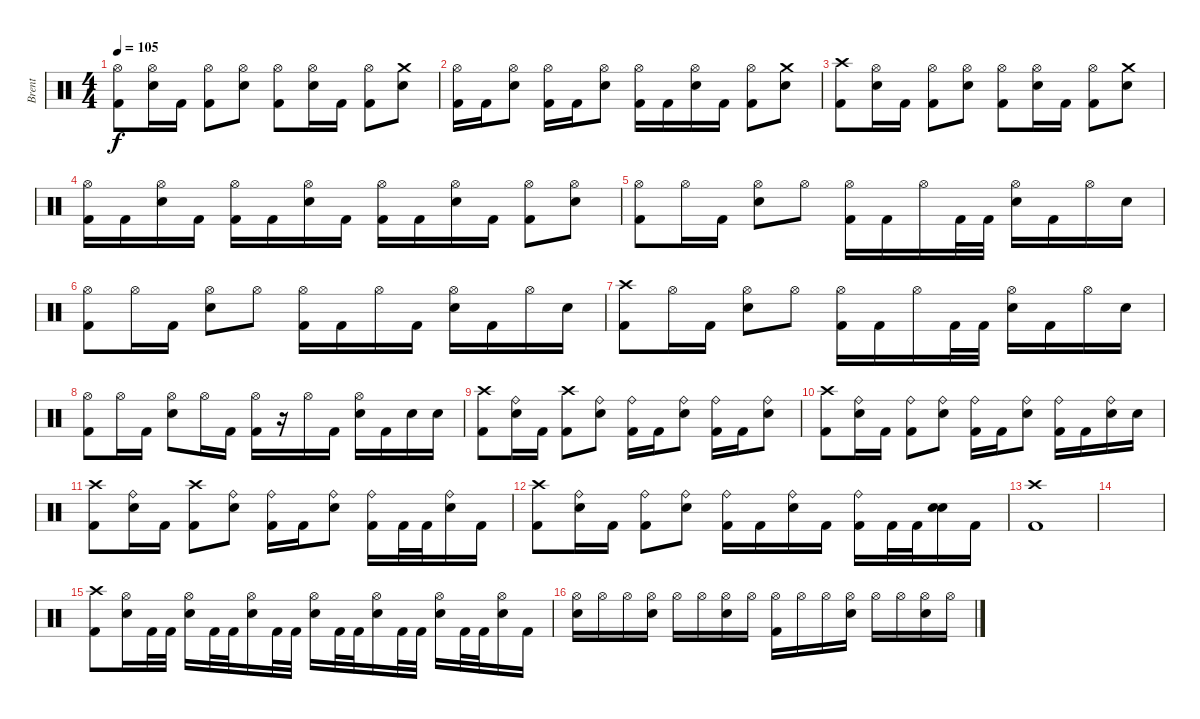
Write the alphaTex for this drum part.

\track ("Brent" "Brent") {instrument percussion}
\staff {score}
\articulation defaults
\ts (4 4)
\tempo 105
\clef neutral
\ks c
("Hi-Hat (open)" "Kick (hit) 2").8{dy f} ("Hi-Hat (open)" "Snare (hit) 2").16 "Kick (hit) 2".16 ("Hi-Hat (open)" "Kick (hit) 2").8 ("Hi-Hat (open)" "Snare (hit) 2").8 ("Hi-Hat (open)" "Kick (hit) 2").8 ("Hi-Hat (open)" "Snare (hit) 2").16 "Kick (hit) 2".16 ("Hi-Hat (open)" "Kick (hit) 2").8 ("Crash medium (hit)" "Snare (hit) 2").8 |
("Hi-Hat (open)" "Kick (hit) 2").16 "Kick (hit) 2".16 ("Hi-Hat (open)" "Snare (hit) 2").8 ("Hi-Hat (open)" "Kick (hit) 2").16 "Kick (hit) 2".16 ("Hi-Hat (open)" "Snare (hit) 2").8 ("Hi-Hat (open)" "Kick (hit) 2").16 "Kick (hit) 2".16 ("Hi-Hat (open)" "Snare (hit) 2").16 "Kick (hit) 2".16 ("Hi-Hat (open)" "Kick (hit) 2").8 ("Crash medium (hit)" "Snare (hit) 2").8 |
("Crash high (hit)" "Kick (hit) 2").8 ("Hi-Hat (open)" "Snare (hit) 2").16 "Kick (hit) 2".16 ("Hi-Hat (open)" "Kick (hit) 2").8 ("Hi-Hat (open)" "Snare (hit) 2").8 ("Hi-Hat (open)" "Kick (hit) 2").8 ("Hi-Hat (open)" "Snare (hit) 2").16 "Kick (hit) 2".16 ("Hi-Hat (open)" "Kick (hit) 2").8 ("Crash medium (hit)" "Snare (hit) 2").8 |
("Hi-Hat (open)" "Kick (hit) 2").16 "Kick (hit) 2".16 ("Hi-Hat (open)" "Snare (hit) 2").16 "Kick (hit) 2".16 ("Hi-Hat (open)" "Kick (hit) 2").16 "Kick (hit) 2".16 ("Hi-Hat (open)" "Snare (hit) 2").16 "Kick (hit) 2".16 ("Hi-Hat (open)" "Kick (hit) 2").16 "Kick (hit) 2".16 ("Hi-Hat (open)" "Snare (hit) 2").16 "Kick (hit) 2".16 ("Hi-Hat (open)" "Kick (hit) 2").8 ("Hi-Hat (open)" "Snare (hit) 2").8 |
("Hi-Hat (open)" "Kick (hit) 2").8 "Hi-Hat (open)".16 "Kick (hit) 2".16 ("Hi-Hat (open)" "Snare (hit) 2").8 "Hi-Hat (open)".8 ("Hi-Hat (open)" "Kick (hit) 2").16 "Kick (hit) 2".16 "Hi-Hat (open)".16 "Kick (hit) 2".32 "Kick (hit) 2".32 ("Hi-Hat (open)" "Snare (hit) 2").16 "Kick (hit) 2".16 "Hi-Hat (open)".16 "Snare (hit) 2".16 |
("Hi-Hat (open)" "Kick (hit) 2").8 "Hi-Hat (open)".16 "Kick (hit) 2".16 ("Hi-Hat (open)" "Snare (hit) 2").8 "Hi-Hat (open)".8 ("Hi-Hat (open)" "Kick (hit) 2").16 "Kick (hit) 2".16 "Hi-Hat (open)".16 "Kick (hit) 2".16 ("Hi-Hat (open)" "Snare (hit) 2").16 "Kick (hit) 2".16 "Hi-Hat (open)".16 "Snare (hit) 2".16 |
("Crash high (hit)" "Kick (hit) 2").8 "Hi-Hat (open)".16 "Kick (hit) 2".16 ("Hi-Hat (open)" "Snare (hit) 2").8 "Hi-Hat (open)".8 ("Hi-Hat (open)" "Kick (hit) 2").16 "Kick (hit) 2".16 "Hi-Hat (open)".16 "Kick (hit) 2".32 "Kick (hit) 2".32 ("Hi-Hat (open)" "Snare (hit) 2").16 "Kick (hit) 2".16 "Hi-Hat (open)".16 "Snare (hit) 2".16 |
("Hi-Hat (open)" "Kick (hit) 2").8 "Hi-Hat (open)".16 "Kick (hit) 2".16 ("Hi-Hat (open)" "Snare (hit) 2").8 "Hi-Hat (open)".16 "Kick (hit) 2".16 ("Hi-Hat (open)" "Kick (hit) 2").16 r.16 "Hi-Hat (open)".16 "Kick (hit) 2".16 ("Hi-Hat (open)" "Snare (hit) 2").16 "Kick (hit) 2".16 "Snare (hit) 2".16 "Snare (hit) 2".16 |
("Crash high (hit)" "Kick (hit) 2").8 ("Ride (bell)" "Snare (hit) 2").16 "Kick (hit) 2".16 ("Crash high (hit)" "Kick (hit) 2").8 ("Ride (bell)" "Snare (hit) 2").8 ("Ride (bell)" "Kick (hit) 2").16 "Kick (hit) 2".16 ("Ride (bell)" "Snare (hit) 2").8 ("Ride (bell)" "Kick (hit) 2").16 "Kick (hit) 2".16 ("Ride (bell)" "Snare (hit) 2").8 |
("Crash high (hit)" "Kick (hit) 2").8 ("Ride (bell)" "Snare (hit) 2").16 "Kick (hit) 2".16 ("Ride (bell)" "Kick (hit) 2").8 ("Ride (bell)" "Snare (hit) 2").8 ("Ride (bell)" "Kick (hit) 2").16 "Kick (hit) 2".16 ("Ride (bell)" "Snare (hit) 2").8 ("Ride (bell)" "Kick (hit) 2").16 "Kick (hit) 2".16 ("Ride (bell)" "Snare (hit) 2").16 "Snare (hit) 2".16 |
("Crash high (hit)" "Kick (hit) 2").8 ("Ride (bell)" "Snare (hit) 2").16 "Kick (hit) 2".16 ("Crash high (hit)" "Kick (hit) 2").8 ("Ride (bell)" "Snare (hit) 2").8 ("Ride (bell)" "Kick (hit) 2").16 "Kick (hit) 2".16 ("Ride (bell)" "Snare (hit) 2").8 ("Ride (bell)" "Kick (hit) 2").16 "Kick (hit) 2".32 "Kick (hit) 2".32 ("Ride (bell)" "Snare (hit) 2").16 "Kick (hit) 2".16 |
("Crash high (hit)" "Kick (hit) 2").8 ("Ride (bell)" "Snare (hit) 2").16 "Kick (hit) 2".16 ("Ride (bell)" "Kick (hit) 2").8 ("Ride (bell)" "Snare (hit) 2").8 ("Ride (bell)" "Kick (hit) 2").16 "Kick (hit) 2".16 ("Ride (bell)" "Snare (hit) 2").16 "Kick (hit) 2".16 ("Ride (bell)" "Kick (hit) 2").16 "Kick (hit) 2".32 "Kick (hit) 2".32 ("Snare (hit) 2" "Snare (hit) 2").16 "Kick (hit) 2".16 |
("Crash high (hit)" "Kick (hit) 2").1 |
|
("Crash high (hit)" "Kick (hit) 2").8 ("Hi-Hat (open)" "Snare (hit) 2").16 "Kick (hit) 2".32 "Kick (hit) 2".32 ("Hi-Hat (open)" "Snare (hit) 2").16 "Kick (hit) 2".32 "Kick (hit) 2".32 ("Hi-Hat (open)" "Snare (hit) 2").16 "Kick (hit) 2".32 "Kick (hit) 2".32 ("Hi-Hat (open)" "Snare (hit) 2").16 "Kick (hit) 2".32 "Kick (hit) 2".32 ("Hi-Hat (open)" "Snare (hit) 2").16 "Kick (hit) 2".32 "Kick (hit) 2".32 ("Hi-Hat (open)" "Snare (hit) 2").16 "Kick (hit) 2".32 "Kick (hit) 2".32 ("Hi-Hat (open)" "Snare (hit) 2").16 "Kick (hit) 2".16 |
("Hi-Hat (open)" "Snare (hit) 2").16 "Hi-Hat (open)".16 "Hi-Hat (open)".16 ("Hi-Hat (open)" "Snare (hit) 2").16 "Hi-Hat (open)".16 "Hi-Hat (open)".16 ("Hi-Hat (open)" "Snare (hit) 2").16 "Hi-Hat (open)".16 ("Hi-Hat (open)" "Kick (hit) 2").16 "Hi-Hat (open)".16 "Hi-Hat (open)".16 ("Hi-Hat (open)" "Snare (hit) 2").16 "Hi-Hat (open)".16 "Hi-Hat (open)".16 ("Hi-Hat (open)" "Snare (hit) 2").16 "Hi-Hat (open)".16
